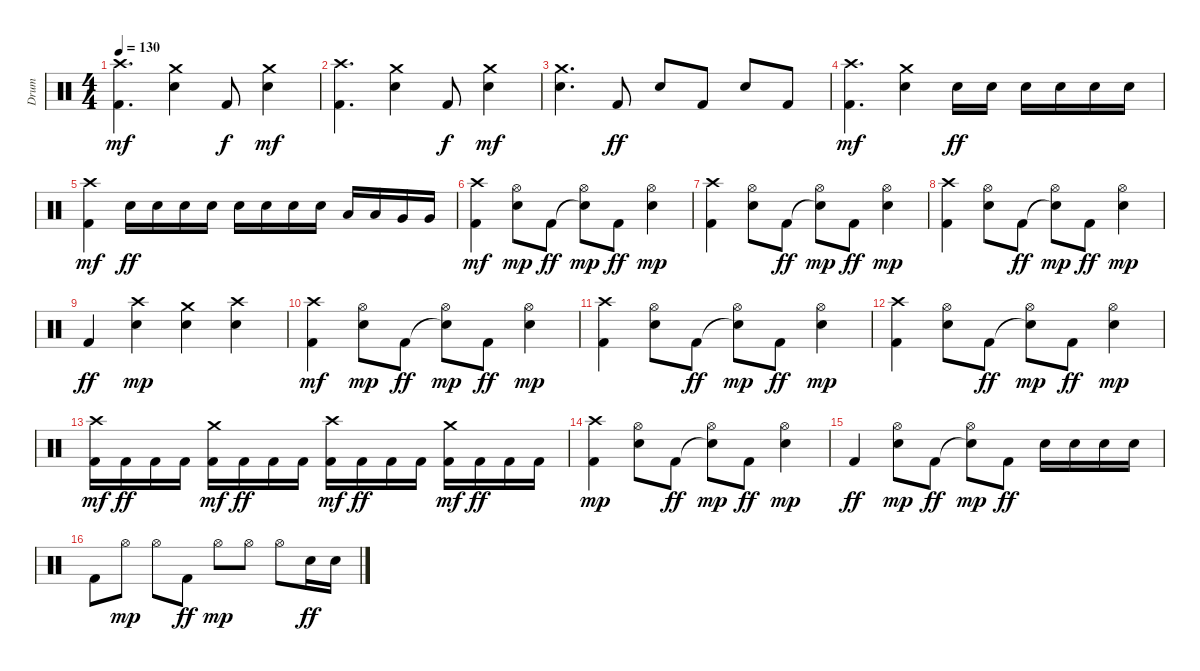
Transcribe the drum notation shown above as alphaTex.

\track ("Drum" "Drum") {instrument percussion}
\staff {score}
\articulation defaults
\ts (4 4)
\tempo 130
\clef neutral
\ks c
("Kick (hit) 2" "Crash high (hit)").4{d dy mf} ("Electric Snare (hit)" "Crash medium (hit)").4 "Kick (hit) 2".8{dy f} ("Electric Snare (hit)" "Crash medium (hit)").4{dy mf} |
("Kick (hit) 2" "Crash high (hit)").4{d} ("Electric Snare (hit)" "Crash medium (hit)").4 "Kick (hit) 2".8{dy f} ("Electric Snare (hit)" "Crash medium (hit)").4{dy mf} |
("Electric Snare (hit)" "Crash medium (hit)").4{d} "Kick (hit) 2".8{dy ff} "Electric Snare (hit)".8 "Kick (hit) 2".8 "Electric Snare (hit)".8 "Kick (hit) 2".8 |
("Kick (hit) 2" "Crash high (hit)").4{d dy mf} ("Electric Snare (hit)" "Crash medium (hit)").4 "Electric Snare (hit)".16{dy ff} "Electric Snare (hit)".16 "Electric Snare (hit)".16 "Electric Snare (hit)".16 "Electric Snare (hit)".16 "Electric Snare (hit)".16 |
("Kick (hit) 2" "Crash high (hit)").4{dy mf} "Electric Snare (hit)".16{dy ff} "Electric Snare (hit)".16 "Electric Snare (hit)".16 "Electric Snare (hit)".16 "Electric Snare (hit)".16 "Electric Snare (hit)".16 "Electric Snare (hit)".16 "Electric Snare (hit)".16 "Low Tom (hit)".16 "Low Tom (hit)".16 "Very Low Tom (hit)".16 "Very Low Tom (hit)".16 |
("Kick (hit) 2" "Crash high (hit)").4{dy mf} ("Electric Snare (hit)" "Hi-Hat (open)").8{dy mp} "Kick (hit) 2".8{dy ff} ("Snare (hit)"{t} "Hi-Hat (open)").8{dy mp} "Kick (hit) 2".8{dy ff} ("Electric Snare (hit)" "Hi-Hat (open)").4{dy mp} |
("Kick (hit) 2" "Crash high (hit)").4 ("Electric Snare (hit)" "Hi-Hat (open)").8 "Kick (hit) 2".8{dy ff} ("Snare (hit)"{t} "Hi-Hat (open)").8{dy mp} "Kick (hit) 2".8{dy ff} ("Electric Snare (hit)" "Hi-Hat (open)").4{dy mp} |
("Kick (hit) 2" "Crash high (hit)").4 ("Electric Snare (hit)" "Hi-Hat (open)").8 "Kick (hit) 2".8{dy ff} ("Snare (hit)"{t} "Hi-Hat (open)").8{dy mp} "Kick (hit) 2".8{dy ff} ("Electric Snare (hit)" "Hi-Hat (open)").4{dy mp} |
"Kick (hit) 2".4{dy ff} ("Electric Snare (hit)" "Crash high (hit)").4{dy mp} ("Electric Snare (hit)" "Crash medium (hit)").4 ("Electric Snare (hit)" "Crash high (hit)").4 |
("Kick (hit) 2" "Crash high (hit)").4{dy mf} ("Electric Snare (hit)" "Hi-Hat (open)").8{dy mp} "Kick (hit) 2".8{dy ff} ("Snare (hit)"{t} "Hi-Hat (open)").8{dy mp} "Kick (hit) 2".8{dy ff} ("Electric Snare (hit)" "Hi-Hat (open)").4{dy mp} |
("Kick (hit) 2" "Crash high (hit)").4 ("Electric Snare (hit)" "Hi-Hat (open)").8 "Kick (hit) 2".8{dy ff} ("Snare (hit)"{t} "Hi-Hat (open)").8{dy mp} "Kick (hit) 2".8{dy ff} ("Electric Snare (hit)" "Hi-Hat (open)").4{dy mp} |
("Kick (hit) 2" "Crash high (hit)").4 ("Electric Snare (hit)" "Hi-Hat (open)").8 "Kick (hit) 2".8{dy ff} ("Snare (hit)"{t} "Hi-Hat (open)").8{dy mp} "Kick (hit) 2".8{dy ff} ("Electric Snare (hit)" "Hi-Hat (open)").4{dy mp} |
("Kick (hit) 2" "Crash high (hit)").16{dy mf} "Kick (hit) 2".16{dy ff} "Kick (hit) 2".16 "Kick (hit) 2".16 ("Kick (hit) 2" "Crash medium (hit)").16{dy mf} "Kick (hit) 2".16{dy ff} "Kick (hit) 2".16 "Kick (hit) 2".16 ("Kick (hit) 2" "Crash high (hit)").16{dy mf} "Kick (hit) 2".16{dy ff} "Kick (hit) 2".16 "Kick (hit) 2".16 ("Kick (hit) 2" "Crash medium (hit)").16{dy mf} "Kick (hit) 2".16{dy ff} "Kick (hit) 2".16 "Kick (hit) 2".16 |
("Kick (hit) 2" "Crash high (hit)").4{dy mp} ("Electric Snare (hit)" "Hi-Hat (open)").8 "Kick (hit) 2".8{dy ff} ("Snare (hit)"{t} "Hi-Hat (open)").8{dy mp} "Kick (hit) 2".8{dy ff} ("Electric Snare (hit)" "Hi-Hat (open)").4{dy mp} |
"Kick (hit) 2".4{dy ff} ("Electric Snare (hit)" "Hi-Hat (open)").8{dy mp} "Kick (hit) 2".8{dy ff} ("Snare (hit)"{t} "Hi-Hat (open)").8{dy mp} "Kick (hit) 2".8{dy ff} "Electric Snare (hit)".16 "Electric Snare (hit)".16 "Electric Snare (hit)".16 "Electric Snare (hit)".16 |
"Kick (hit) 2".8 "Hi-Hat (open)".8{dy mp} "Hi-Hat (open)".8 "Kick (hit) 2".8{dy ff} "Hi-Hat (open)".8{dy mp} "Hi-Hat (open)".8 "Hi-Hat (open)".8 "Electric Snare (hit)".16{dy ff} "Electric Snare (hit)".16
